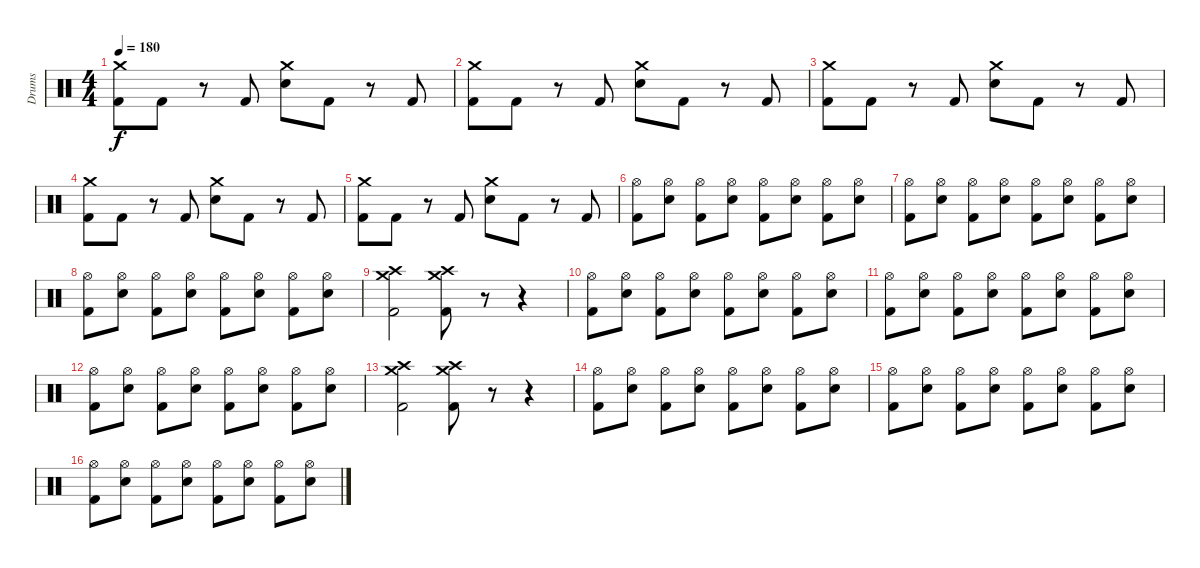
\track ("Drums" "Drums") {instrument percussion}
\staff {score}
\articulation defaults
\ts (4 4)
\tempo 180
\clef neutral
\ks c
("Crash medium (hit)" "Kick (hit) 2").8{dy f} "Kick (hit) 2".8 r.8 "Kick (hit) 2".8 ("Crash medium (hit)" "Snare (hit) 2").8 "Kick (hit) 2".8 r.8 "Kick (hit) 2".8 |
("Crash medium (hit)" "Kick (hit) 2").8 "Kick (hit) 2".8 r.8 "Kick (hit) 2".8 ("Crash medium (hit)" "Snare (hit) 2").8 "Kick (hit) 2".8 r.8 "Kick (hit) 2".8 |
("Crash medium (hit)" "Kick (hit) 2").8 "Kick (hit) 2".8 r.8 "Kick (hit) 2".8 ("Crash medium (hit)" "Snare (hit) 2").8 "Kick (hit) 2".8 r.8 "Kick (hit) 2".8 |
("Crash medium (hit)" "Kick (hit) 2").8 "Kick (hit) 2".8 r.8 "Kick (hit) 2".8 ("Crash medium (hit)" "Snare (hit) 2").8 "Kick (hit) 2".8 r.8 "Kick (hit) 2".8 |
("Crash medium (hit)" "Kick (hit) 2").8 "Kick (hit) 2".8 r.8 "Kick (hit) 2".8 ("Crash medium (hit)" "Snare (hit) 2").8 "Kick (hit) 2".8 r.8 "Kick (hit) 2".8 |
("Hi-Hat (open)" "Kick (hit) 2").8 ("Hi-Hat (open)" "Snare (hit) 2").8 ("Hi-Hat (open)" "Kick (hit) 2").8 ("Hi-Hat (open)" "Snare (hit) 2").8 ("Hi-Hat (open)" "Kick (hit) 2").8 ("Hi-Hat (open)" "Snare (hit) 2").8 ("Hi-Hat (open)" "Kick (hit) 2").8 ("Hi-Hat (open)" "Snare (hit) 2").8 |
("Hi-Hat (open)" "Kick (hit) 2").8 ("Hi-Hat (open)" "Snare (hit) 2").8 ("Hi-Hat (open)" "Kick (hit) 2").8 ("Hi-Hat (open)" "Snare (hit) 2").8 ("Hi-Hat (open)" "Kick (hit) 2").8 ("Hi-Hat (open)" "Snare (hit) 2").8 ("Hi-Hat (open)" "Kick (hit) 2").8 ("Hi-Hat (open)" "Snare (hit) 2").8 |
("Hi-Hat (open)" "Kick (hit) 2").8 ("Hi-Hat (open)" "Snare (hit) 2").8 ("Hi-Hat (open)" "Kick (hit) 2").8 ("Hi-Hat (open)" "Snare (hit) 2").8 ("Hi-Hat (open)" "Kick (hit) 2").8 ("Hi-Hat (open)" "Snare (hit) 2").8 ("Hi-Hat (open)" "Kick (hit) 2").8 ("Hi-Hat (open)" "Snare (hit) 2").8 |
("Crash high (hit)" "Crash medium (hit)" "Kick (hit) 2").2 ("Crash high (hit)" "Crash medium (hit)" "Kick (hit) 2").8 r.8 r.4 |
("Hi-Hat (open)" "Kick (hit) 2").8 ("Hi-Hat (open)" "Snare (hit) 2").8 ("Hi-Hat (open)" "Kick (hit) 2").8 ("Hi-Hat (open)" "Snare (hit) 2").8 ("Hi-Hat (open)" "Kick (hit) 2").8 ("Hi-Hat (open)" "Snare (hit) 2").8 ("Hi-Hat (open)" "Kick (hit) 2").8 ("Hi-Hat (open)" "Snare (hit) 2").8 |
("Hi-Hat (open)" "Kick (hit) 2").8 ("Hi-Hat (open)" "Snare (hit) 2").8 ("Hi-Hat (open)" "Kick (hit) 2").8 ("Hi-Hat (open)" "Snare (hit) 2").8 ("Hi-Hat (open)" "Kick (hit) 2").8 ("Hi-Hat (open)" "Snare (hit) 2").8 ("Hi-Hat (open)" "Kick (hit) 2").8 ("Hi-Hat (open)" "Snare (hit) 2").8 |
("Hi-Hat (open)" "Kick (hit) 2").8 ("Hi-Hat (open)" "Snare (hit) 2").8 ("Hi-Hat (open)" "Kick (hit) 2").8 ("Hi-Hat (open)" "Snare (hit) 2").8 ("Hi-Hat (open)" "Kick (hit) 2").8 ("Hi-Hat (open)" "Snare (hit) 2").8 ("Hi-Hat (open)" "Kick (hit) 2").8 ("Hi-Hat (open)" "Snare (hit) 2").8 |
("Crash high (hit)" "Crash medium (hit)" "Kick (hit) 2").2 ("Crash high (hit)" "Crash medium (hit)" "Kick (hit) 2").8 r.8 r.4 |
("Hi-Hat (open)" "Kick (hit) 2").8 ("Hi-Hat (open)" "Snare (hit) 2").8 ("Hi-Hat (open)" "Kick (hit) 2").8 ("Hi-Hat (open)" "Snare (hit) 2").8 ("Hi-Hat (open)" "Kick (hit) 2").8 ("Hi-Hat (open)" "Snare (hit) 2").8 ("Hi-Hat (open)" "Kick (hit) 2").8 ("Hi-Hat (open)" "Snare (hit) 2").8 |
("Hi-Hat (open)" "Kick (hit) 2").8 ("Hi-Hat (open)" "Snare (hit) 2").8 ("Hi-Hat (open)" "Kick (hit) 2").8 ("Hi-Hat (open)" "Snare (hit) 2").8 ("Hi-Hat (open)" "Kick (hit) 2").8 ("Hi-Hat (open)" "Snare (hit) 2").8 ("Hi-Hat (open)" "Kick (hit) 2").8 ("Hi-Hat (open)" "Snare (hit) 2").8 |
("Hi-Hat (open)" "Kick (hit) 2").8 ("Hi-Hat (open)" "Snare (hit) 2").8 ("Hi-Hat (open)" "Kick (hit) 2").8 ("Hi-Hat (open)" "Snare (hit) 2").8 ("Hi-Hat (open)" "Kick (hit) 2").8 ("Hi-Hat (open)" "Snare (hit) 2").8 ("Hi-Hat (open)" "Kick (hit) 2").8 ("Hi-Hat (open)" "Snare (hit) 2").8
